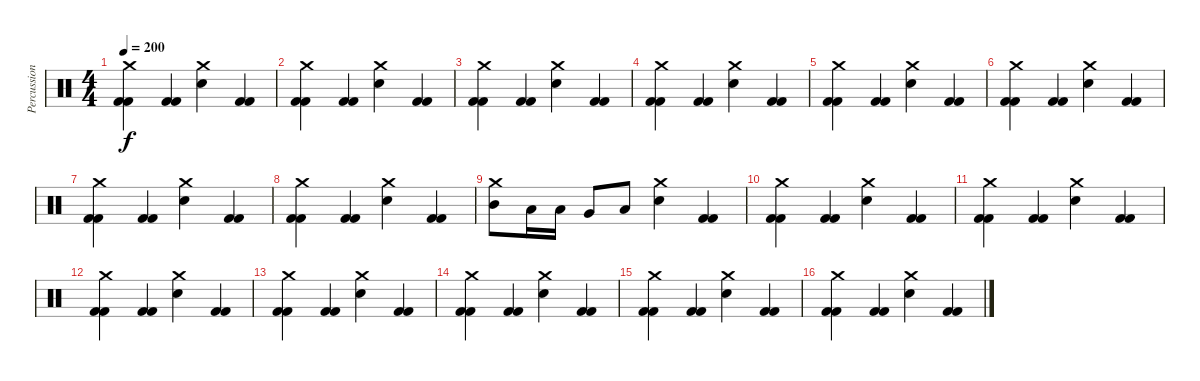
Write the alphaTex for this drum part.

\track ("Percussion" "Percussion") {instrument percussion}
\staff {score}
\articulation defaults
\ts (4 4)
\tempo 200
\clef neutral
\ks c
("Crash medium (hit)" "Kick (hit) 2" "Kick (hit) 2").4{dy f} ("Kick (hit) 2" "Kick (hit) 2").4 ("Electric Snare (hit)" "Crash medium (hit)").4 ("Kick (hit) 2" "Kick (hit) 2").4 |
("Crash medium (hit)" "Kick (hit) 2" "Kick (hit) 2").4 ("Kick (hit) 2" "Kick (hit) 2").4 ("Electric Snare (hit)" "Crash medium (hit)").4 ("Kick (hit) 2" "Kick (hit) 2").4 |
("Crash medium (hit)" "Kick (hit) 2" "Kick (hit) 2").4 ("Kick (hit) 2" "Kick (hit) 2").4 ("Electric Snare (hit)" "Crash medium (hit)").4 ("Kick (hit) 2" "Kick (hit) 2").4 |
("Crash medium (hit)" "Kick (hit) 2" "Kick (hit) 2").4 ("Kick (hit) 2" "Kick (hit) 2").4 ("Electric Snare (hit)" "Crash medium (hit)").4 ("Kick (hit) 2" "Kick (hit) 2").4 |
("Crash medium (hit)" "Kick (hit) 2" "Kick (hit) 2").4 ("Kick (hit) 2" "Kick (hit) 2").4 ("Electric Snare (hit)" "Crash medium (hit)").4 ("Kick (hit) 2" "Kick (hit) 2").4 |
("Crash medium (hit)" "Kick (hit) 2" "Kick (hit) 2").4 ("Kick (hit) 2" "Kick (hit) 2").4 ("Electric Snare (hit)" "Crash medium (hit)").4 ("Kick (hit) 2" "Kick (hit) 2").4 |
("Crash medium (hit)" "Kick (hit) 2" "Kick (hit) 2").4 ("Kick (hit) 2" "Kick (hit) 2").4 ("Electric Snare (hit)" "Crash medium (hit)").4 ("Kick (hit) 2" "Kick (hit) 2").4 |
("Crash medium (hit)" "Kick (hit) 2" "Kick (hit) 2").4 ("Kick (hit) 2" "Kick (hit) 2").4 ("Electric Snare (hit)" "Crash medium (hit)").4 ("Kick (hit) 2" "Kick (hit) 2").4 |
("Mid Tom (hit)" "Crash medium (hit)").8 "Low Tom (hit)".16 "Low Tom (hit)".16 "Very Low Tom (hit)".8 "Low Floor Tom (hit)".8 ("Electric Snare (hit)" "Crash medium (hit)").4 ("Kick (hit) 2" "Kick (hit) 2").4 |
("Crash medium (hit)" "Kick (hit) 2" "Kick (hit) 2").4 ("Kick (hit) 2" "Kick (hit) 2").4 ("Electric Snare (hit)" "Crash medium (hit)").4 ("Kick (hit) 2" "Kick (hit) 2").4 |
("Crash medium (hit)" "Kick (hit) 2" "Kick (hit) 2").4 ("Kick (hit) 2" "Kick (hit) 2").4 ("Electric Snare (hit)" "Crash medium (hit)").4 ("Kick (hit) 2" "Kick (hit) 2").4 |
("Crash medium (hit)" "Kick (hit) 2" "Kick (hit) 2").4 ("Kick (hit) 2" "Kick (hit) 2").4 ("Electric Snare (hit)" "Crash medium (hit)").4 ("Kick (hit) 2" "Kick (hit) 2").4 |
("Crash medium (hit)" "Kick (hit) 2" "Kick (hit) 2").4 ("Kick (hit) 2" "Kick (hit) 2").4 ("Electric Snare (hit)" "Crash medium (hit)").4 ("Kick (hit) 2" "Kick (hit) 2").4 |
("Crash medium (hit)" "Kick (hit) 2" "Kick (hit) 2").4 ("Kick (hit) 2" "Kick (hit) 2").4 ("Electric Snare (hit)" "Crash medium (hit)").4 ("Kick (hit) 2" "Kick (hit) 2").4 |
("Crash medium (hit)" "Kick (hit) 2" "Kick (hit) 2").4 ("Kick (hit) 2" "Kick (hit) 2").4 ("Electric Snare (hit)" "Crash medium (hit)").4 ("Kick (hit) 2" "Kick (hit) 2").4 |
("Crash medium (hit)" "Kick (hit) 2" "Kick (hit) 2").4 ("Kick (hit) 2" "Kick (hit) 2").4 ("Electric Snare (hit)" "Crash medium (hit)").4 ("Kick (hit) 2" "Kick (hit) 2").4
